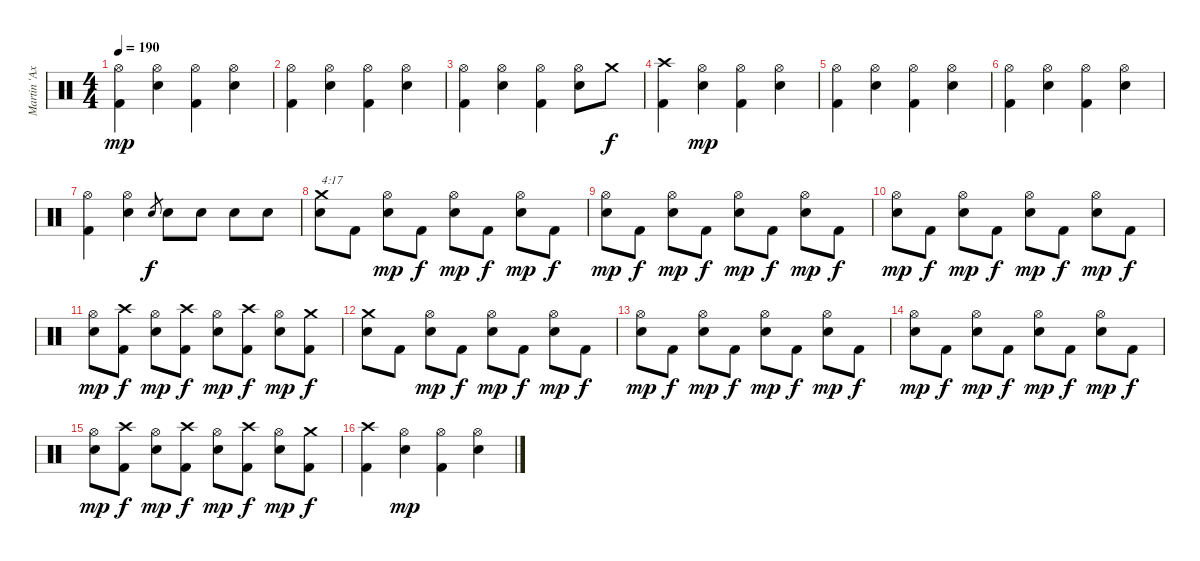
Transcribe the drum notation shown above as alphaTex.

\track ("Martin 'Axe' Axenroth" "Martin 'Ax") {instrument percussion}
\staff {score}
\articulation defaults
\ts (4 4)
\tempo 190
\clef neutral
\ks c
("Kick (hit) 2" "Hi-Hat (open)").4{dy mp} ("Electric Snare (hit)" "Hi-Hat (open)").4 ("Kick (hit) 2" "Hi-Hat (open)").4 ("Electric Snare (hit)" "Hi-Hat (open)").4 |
("Kick (hit) 2" "Hi-Hat (open)").4 ("Electric Snare (hit)" "Hi-Hat (open)").4 ("Kick (hit) 2" "Hi-Hat (open)").4 ("Electric Snare (hit)" "Hi-Hat (open)").4 |
("Kick (hit) 2" "Hi-Hat (open)").4 ("Electric Snare (hit)" "Hi-Hat (open)").4 ("Kick (hit) 2" "Hi-Hat (open)").4 ("Electric Snare (hit)" "Hi-Hat (open)").8 "Crash medium (hit)".8{dy f} |
("Kick (hit) 2" "Crash high (hit)").4 ("Electric Snare (hit)" "Hi-Hat (open)").4{dy mp} ("Kick (hit) 2" "Hi-Hat (open)").4 ("Electric Snare (hit)" "Hi-Hat (open)").4 |
("Kick (hit) 2" "Hi-Hat (open)").4 ("Electric Snare (hit)" "Hi-Hat (open)").4 ("Kick (hit) 2" "Hi-Hat (open)").4 ("Electric Snare (hit)" "Hi-Hat (open)").4 |
("Kick (hit) 2" "Hi-Hat (open)").4 ("Electric Snare (hit)" "Hi-Hat (open)").4 ("Kick (hit) 2" "Hi-Hat (open)").4 ("Electric Snare (hit)" "Hi-Hat (open)").4 |
("Kick (hit) 2" "Hi-Hat (open)").4 ("Electric Snare (hit)" "Hi-Hat (open)").4 "Electric Snare (hit)".8{gr dy f} "Electric Snare (hit)".8 "Electric Snare (hit)".8 "Electric Snare (hit)".8 "Electric Snare (hit)".8 |
("Electric Snare (hit)" "Crash medium (hit)").8{txt "4:17"} "Kick (hit) 2".8 ("Electric Snare (hit)" "Hi-Hat (open)").8{dy mp} "Kick (hit) 2".8{dy f} ("Electric Snare (hit)" "Hi-Hat (open)").8{dy mp} "Kick (hit) 2".8{dy f} ("Electric Snare (hit)" "Hi-Hat (open)").8{dy mp} "Kick (hit) 2".8{dy f} |
("Electric Snare (hit)" "Hi-Hat (open)").8{dy mp} "Kick (hit) 2".8{dy f} ("Electric Snare (hit)" "Hi-Hat (open)").8{dy mp} "Kick (hit) 2".8{dy f} ("Electric Snare (hit)" "Hi-Hat (open)").8{dy mp} "Kick (hit) 2".8{dy f} ("Electric Snare (hit)" "Hi-Hat (open)").8{dy mp} "Kick (hit) 2".8{dy f} |
("Electric Snare (hit)" "Hi-Hat (open)").8{dy mp} "Kick (hit) 2".8{dy f} ("Electric Snare (hit)" "Hi-Hat (open)").8{dy mp} "Kick (hit) 2".8{dy f} ("Electric Snare (hit)" "Hi-Hat (open)").8{dy mp} "Kick (hit) 2".8{dy f} ("Electric Snare (hit)" "Hi-Hat (open)").8{dy mp} "Kick (hit) 2".8{dy f} |
("Electric Snare (hit)" "Hi-Hat (open)").8{dy mp} ("Kick (hit) 2" "Crash high (hit)").8{dy f} ("Electric Snare (hit)" "Hi-Hat (open)").8{dy mp} ("Kick (hit) 2" "Crash high (hit)").8{dy f} ("Electric Snare (hit)" "Hi-Hat (open)").8{dy mp} ("Kick (hit) 2" "Crash high (hit)").8{dy f} ("Electric Snare (hit)" "Hi-Hat (open)").8{dy mp} ("Kick (hit) 2" "Crash medium (hit)").8{dy f} |
("Electric Snare (hit)" "Crash medium (hit)").8 "Kick (hit) 2".8 ("Electric Snare (hit)" "Hi-Hat (open)").8{dy mp} "Kick (hit) 2".8{dy f} ("Electric Snare (hit)" "Hi-Hat (open)").8{dy mp} "Kick (hit) 2".8{dy f} ("Electric Snare (hit)" "Hi-Hat (open)").8{dy mp} "Kick (hit) 2".8{dy f} |
("Electric Snare (hit)" "Hi-Hat (open)").8{dy mp} "Kick (hit) 2".8{dy f} ("Electric Snare (hit)" "Hi-Hat (open)").8{dy mp} "Kick (hit) 2".8{dy f} ("Electric Snare (hit)" "Hi-Hat (open)").8{dy mp} "Kick (hit) 2".8{dy f} ("Electric Snare (hit)" "Hi-Hat (open)").8{dy mp} "Kick (hit) 2".8{dy f} |
("Electric Snare (hit)" "Hi-Hat (open)").8{dy mp} "Kick (hit) 2".8{dy f} ("Electric Snare (hit)" "Hi-Hat (open)").8{dy mp} "Kick (hit) 2".8{dy f} ("Electric Snare (hit)" "Hi-Hat (open)").8{dy mp} "Kick (hit) 2".8{dy f} ("Electric Snare (hit)" "Hi-Hat (open)").8{dy mp} "Kick (hit) 2".8{dy f} |
("Electric Snare (hit)" "Hi-Hat (open)").8{dy mp} ("Kick (hit) 2" "Crash high (hit)").8{dy f} ("Electric Snare (hit)" "Hi-Hat (open)").8{dy mp} ("Kick (hit) 2" "Crash high (hit)").8{dy f} ("Electric Snare (hit)" "Hi-Hat (open)").8{dy mp} ("Kick (hit) 2" "Crash high (hit)").8{dy f} ("Electric Snare (hit)" "Hi-Hat (open)").8{dy mp} ("Kick (hit) 2" "Crash medium (hit)").8{dy f} |
("Kick (hit) 2" "Crash high (hit)").4 ("Electric Snare (hit)" "Hi-Hat (open)").4{dy mp} ("Kick (hit) 2" "Hi-Hat (open)").4 ("Electric Snare (hit)" "Hi-Hat (open)").4
